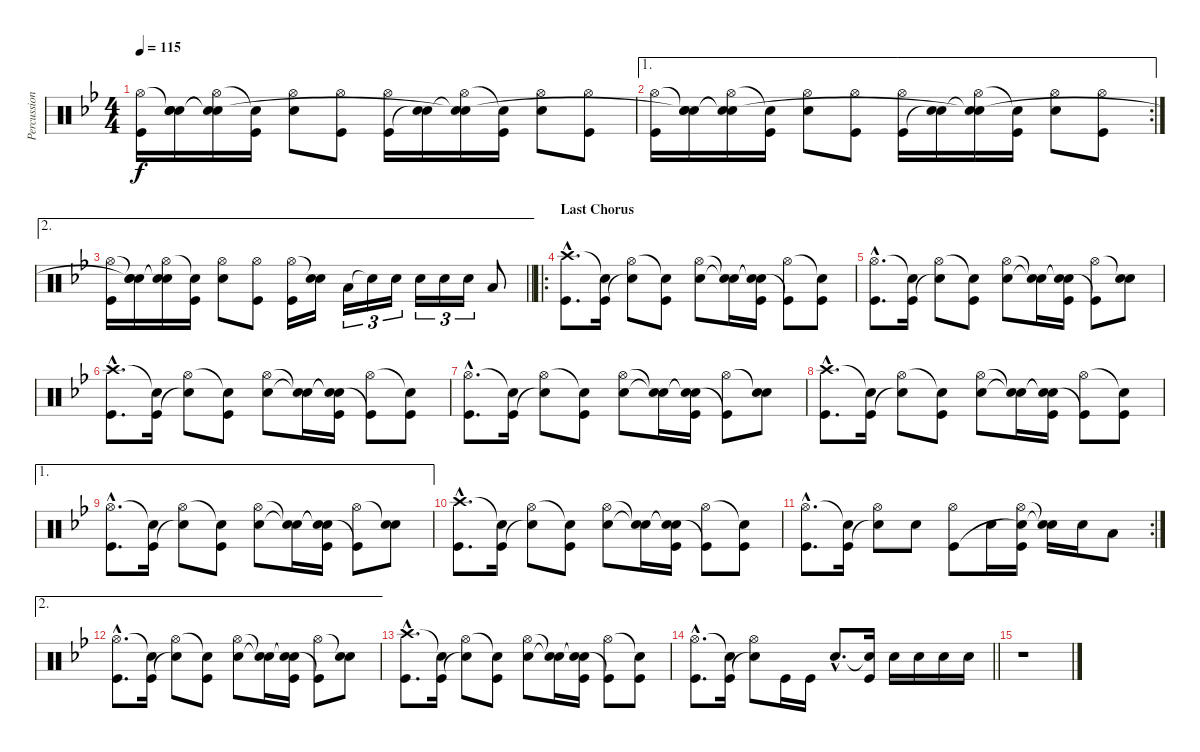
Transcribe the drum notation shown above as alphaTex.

\track ("Percussion" "Percussion") {instrument percussion}
\staff {score}
\articulation defaults
\ts (4 4)
\tempo 115
\clef neutral
\ks bb
("Hi-Hat (open)" "Kick (hit)").16{dy f} ("Snare (hit)"{t} "Electric Snare (hit)" "Snare (hit)"{t}).16 ("Hi-Hat (open)" "Snare (hit)"{t} "Snare (hit)"{t}).16 ("Snare (hit)"{t} "Kick (hit)").16 ("Hi-Hat (open)" "Electric Snare (hit)").8 ("Hi-Hat (open)" "Kick (hit)").8 ("Hi-Hat (open)" "Kick (hit)").16 ("Electric Snare (hit)" "Snare (hit)"{t}).16 ("Hi-Hat (open)" "Snare (hit)"{t} "Snare (hit)"{t}).16 ("Snare (hit)"{t} "Kick (hit)").16 ("Hi-Hat (open)" "Electric Snare (hit)").8 ("Hi-Hat (open)" "Kick (hit)").8 |
\ae 1
\rc 2
("Hi-Hat (open)" "Kick (hit)").16 ("Snare (hit)"{t} "Electric Snare (hit)" "Snare (hit)"{t}).16 ("Hi-Hat (open)" "Snare (hit)"{t} "Snare (hit)"{t}).16 ("Snare (hit)"{t} "Kick (hit)").16 ("Hi-Hat (open)" "Electric Snare (hit)").8 ("Hi-Hat (open)" "Kick (hit)").8 ("Hi-Hat (open)" "Kick (hit)").16 ("Electric Snare (hit)" "Snare (hit)"{t}).16 ("Hi-Hat (open)" "Snare (hit)"{t} "Snare (hit)"{t}).16 ("Snare (hit)"{t} "Kick (hit)").16 ("Hi-Hat (open)" "Electric Snare (hit)").8 ("Hi-Hat (open)" "Kick (hit)").8 |
\ae 2
\barLineRight lightlight
("Hi-Hat (open)" "Kick (hit)").16 ("Snare (hit)"{t} "Electric Snare (hit)" "Snare (hit)"{t}).16 ("Hi-Hat (open)" "Snare (hit)"{t} "Snare (hit)"{t}).16 ("Snare (hit)"{t} "Kick (hit)").16 ("Hi-Hat (open)" "Electric Snare (hit)").8 ("Hi-Hat (open)" "Kick (hit)").8 ("Hi-Hat (open)" "Kick (hit)").16 ("Snare (hit)"{t} "Electric Snare (hit)").16 "Low Floor Tom (hit)".16{tu (3 2)} "Snare (hit)"{t}.16{tu (3 2)} "Electric Snare (hit)".16{tu (3 2)} "Electric Snare (hit)".16{tu (3 2)} "Electric Snare (hit)".16{tu (3 2)} "Electric Snare (hit)".16{tu (3 2)} "Low Tom (hit)".8 |
\ro
\section ("" "Last Chorus")
("Crash high (hit)"{hac} "Kick (hit)"{hac}).8{d} ("Snare (hit)"{t} "Kick (hit)").16 ("Hi-Hat (open)" "Snare (hit)"{t}).8 ("Snare (hit)"{t} "Kick (hit)").8 ("Hi-Hat (open)" "Electric Snare (hit)").8 ("Snare (hit)"{t} "Snare (hit)"{t}).16 ("Snare (hit)"{t} "Snare (hit)"{t} "Kick (hit)").16 ("Hi-Hat (open)" "Kick (hit)"{t}).8 ("Snare (hit)"{t} "Kick (hit)").8 |
("Hi-Hat (open)"{hac} "Kick (hit)"{hac}).8{d} ("Snare (hit)"{t} "Kick (hit)").16 ("Hi-Hat (open)" "Snare (hit)"{t}).8 ("Snare (hit)"{t} "Kick (hit)").8 ("Hi-Hat (open)" "Electric Snare (hit)").8 ("Snare (hit)"{t} "Snare (hit)"{t}).16 ("Snare (hit)"{t} "Snare (hit)"{t} "Kick (hit)").16 ("Hi-Hat (open)" "Kick (hit)"{t}).8 ("Snare (hit)"{t} "Electric Snare (hit)").8 |
("Crash high (hit)"{hac} "Kick (hit)"{hac}).8{d} ("Snare (hit)"{t} "Kick (hit)").16 ("Hi-Hat (open)" "Snare (hit)"{t}).8 ("Snare (hit)"{t} "Kick (hit)").8 ("Hi-Hat (open)" "Electric Snare (hit)").8 ("Snare (hit)"{t} "Snare (hit)"{t}).16 ("Snare (hit)"{t} "Snare (hit)"{t} "Kick (hit)").16 ("Hi-Hat (open)" "Kick (hit)"{t}).8 ("Snare (hit)"{t} "Kick (hit)").8 |
("Hi-Hat (open)"{hac} "Kick (hit)"{hac}).8{d} ("Snare (hit)"{t} "Kick (hit)").16 ("Hi-Hat (open)" "Snare (hit)"{t}).8 ("Snare (hit)"{t} "Kick (hit)").8 ("Hi-Hat (open)" "Electric Snare (hit)").8 ("Snare (hit)"{t} "Snare (hit)"{t}).16 ("Snare (hit)"{t} "Snare (hit)"{t} "Kick (hit)").16 ("Hi-Hat (open)" "Kick (hit)"{t}).8 ("Snare (hit)"{t} "Electric Snare (hit)").8 |
("Crash high (hit)"{hac} "Kick (hit)"{hac}).8{d} ("Snare (hit)"{t} "Kick (hit)").16 ("Hi-Hat (open)" "Snare (hit)"{t}).8 ("Snare (hit)"{t} "Kick (hit)").8 ("Hi-Hat (open)" "Electric Snare (hit)").8 ("Snare (hit)"{t} "Snare (hit)"{t}).16 ("Snare (hit)"{t} "Snare (hit)"{t} "Kick (hit)").16 ("Hi-Hat (open)" "Kick (hit)"{t}).8 ("Snare (hit)"{t} "Kick (hit)").8 |
\ae 1
("Hi-Hat (open)"{hac} "Kick (hit)"{hac}).8{d} ("Snare (hit)"{t} "Kick (hit)").16 ("Hi-Hat (open)" "Snare (hit)"{t}).8 ("Snare (hit)"{t} "Kick (hit)").8 ("Hi-Hat (open)" "Electric Snare (hit)").8 ("Snare (hit)"{t} "Snare (hit)"{t}).16 ("Snare (hit)"{t} "Snare (hit)"{t} "Kick (hit)").16 ("Hi-Hat (open)" "Kick (hit)"{t}).8 ("Snare (hit)"{t} "Electric Snare (hit)").8 |
("Crash high (hit)"{hac} "Kick (hit)"{hac}).8{d} ("Snare (hit)"{t} "Kick (hit)").16 ("Hi-Hat (open)" "Snare (hit)"{t}).8 ("Snare (hit)"{t} "Kick (hit)").8 ("Hi-Hat (open)" "Electric Snare (hit)").8 ("Snare (hit)"{t} "Snare (hit)"{t}).16 ("Snare (hit)"{t} "Snare (hit)"{t} "Kick (hit)").16 ("Hi-Hat (open)" "Kick (hit)"{t}).8 ("Snare (hit)"{t} "Kick (hit)").8 |
\rc 2
("Hi-Hat (open)"{hac} "Kick (hit)"{hac}).8{d} ("Snare (hit)"{t} "Kick (hit)").16 ("Hi-Hat (open)" "Snare (hit)"{t}).8 "Electric Snare (hit)".8 ("Hi-Hat (open)" "Kick (hit)").8 "Electric Snare (hit)".16 ("Hi-Hat (open)" "Snare (hit)"{t} "Kick (hit)").16 ("Snare (hit)"{t} "Snare (hit)"{t}).16 "Electric Snare (hit)".16 "Low Tom (hit)".8 |
\ae 2
("Hi-Hat (open)"{hac} "Kick (hit)"{hac}).8{d} ("Snare (hit)"{t} "Kick (hit)").16 ("Hi-Hat (open)" "Snare (hit)"{t}).8 ("Snare (hit)"{t} "Kick (hit)").8 ("Hi-Hat (open)" "Electric Snare (hit)").8 ("Snare (hit)"{t} "Snare (hit)"{t}).16 ("Snare (hit)"{t} "Snare (hit)"{t} "Kick (hit)").16 ("Hi-Hat (open)" "Kick (hit)"{t}).8 ("Snare (hit)"{t} "Electric Snare (hit)").8 |
("Crash high (hit)"{hac} "Kick (hit)"{hac}).8{d} ("Snare (hit)"{t} "Kick (hit)").16 ("Hi-Hat (open)" "Snare (hit)"{t}).8 ("Snare (hit)"{t} "Kick (hit)").8 ("Hi-Hat (open)" "Electric Snare (hit)").8 ("Snare (hit)"{t} "Snare (hit)"{t}).16 ("Snare (hit)"{t} "Snare (hit)"{t} "Kick (hit)").16 ("Hi-Hat (open)" "Kick (hit)"{t}).8 ("Snare (hit)"{t} "Kick (hit)").8 |
\barLineRight lightlight
("Hi-Hat (open)"{hac} "Kick (hit)"{hac}).8{d} ("Snare (hit)"{t} "Kick (hit)").16 ("Hi-Hat (open)" "Snare (hit)"{t}).8 "Kick (hit)".16 "Kick (hit)".16 "Electric Snare (hit)"{hac}.8{d} ("Snare (hit)"{t} "Kick (hit)").16 "Electric Snare (hit)".16 "Electric Snare (hit)".16 "Electric Snare (hit)".16 "Electric Snare (hit)".16 |
r.1
